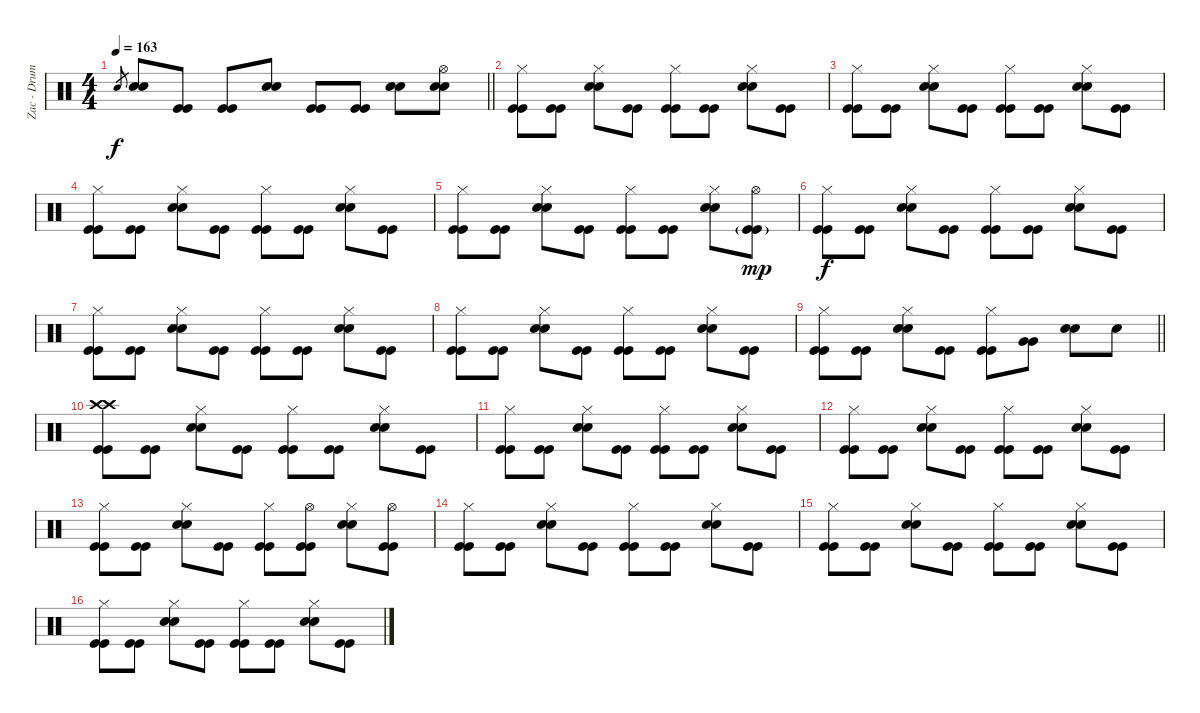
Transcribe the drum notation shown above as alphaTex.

\track ("Zac - Drums" "Zac - Drum") {instrument percussion}
\staff {score}
\articulation defaults
\ts (4 4)
\tempo 163
\clef neutral
\barLineRight lightlight
\ks c "Electric Snare (hit)".8{gr dy f}
("Electric Snare (hit)" "Electric Snare (hit)").8 ("Kick (hit)" "Kick (hit)").8 ("Kick (hit)" "Kick (hit)").8 ("Electric Snare (hit)" "Electric Snare (hit)").8 ("Kick (hit)" "Kick (hit)").8 ("Kick (hit)" "Kick (hit)").8 ("Electric Snare (hit)" "Electric Snare (hit)").8 ("Hi-Hat (open)" "Electric Snare (hit)" "Electric Snare (hit)").8 |
("Hi-Hat (closed)" "Kick (hit)" "Kick (hit)").8 ("Kick (hit)" "Kick (hit)").8 ("Hi-Hat (closed)" "Electric Snare (hit)" "Electric Snare (hit)").8 ("Kick (hit)" "Kick (hit)").8 ("Hi-Hat (closed)" "Kick (hit)" "Kick (hit)").8 ("Kick (hit)" "Kick (hit)").8 ("Hi-Hat (closed)" "Electric Snare (hit)" "Electric Snare (hit)").8 ("Kick (hit)" "Kick (hit)").8 |
("Hi-Hat (closed)" "Kick (hit)" "Kick (hit)").8 ("Kick (hit)" "Kick (hit)").8 ("Hi-Hat (closed)" "Electric Snare (hit)" "Electric Snare (hit)").8 ("Kick (hit)" "Kick (hit)").8 ("Hi-Hat (closed)" "Kick (hit)" "Kick (hit)").8 ("Kick (hit)" "Kick (hit)").8 ("Hi-Hat (closed)" "Electric Snare (hit)" "Electric Snare (hit)").8 ("Kick (hit)" "Kick (hit)").8 |
("Hi-Hat (closed)" "Kick (hit)" "Kick (hit)").8 ("Kick (hit)" "Kick (hit)").8 ("Hi-Hat (closed)" "Electric Snare (hit)" "Electric Snare (hit)").8 ("Kick (hit)" "Kick (hit)").8 ("Hi-Hat (closed)" "Kick (hit)" "Kick (hit)").8 ("Kick (hit)" "Kick (hit)").8 ("Hi-Hat (closed)" "Electric Snare (hit)" "Electric Snare (hit)").8 ("Kick (hit)" "Kick (hit)").8 |
("Hi-Hat (closed)" "Kick (hit)" "Kick (hit)").8 ("Kick (hit)" "Kick (hit)").8 ("Hi-Hat (closed)" "Electric Snare (hit)" "Electric Snare (hit)").8 ("Kick (hit)" "Kick (hit)").8 ("Hi-Hat (closed)" "Kick (hit)" "Kick (hit)").8 ("Kick (hit)" "Kick (hit)").8 ("Hi-Hat (closed)" "Electric Snare (hit)" "Electric Snare (hit)").8 ("Hi-Hat (open)" "Kick (hit)"{g} "Kick (hit)"{g}).8{dy mp} |
("Hi-Hat (closed)" "Kick (hit)" "Kick (hit)").8{dy f} ("Kick (hit)" "Kick (hit)").8 ("Hi-Hat (closed)" "Electric Snare (hit)" "Electric Snare (hit)").8 ("Kick (hit)" "Kick (hit)").8 ("Hi-Hat (closed)" "Kick (hit)" "Kick (hit)").8 ("Kick (hit)" "Kick (hit)").8 ("Hi-Hat (closed)" "Electric Snare (hit)" "Electric Snare (hit)").8 ("Kick (hit)" "Kick (hit)").8 |
("Hi-Hat (closed)" "Kick (hit)" "Kick (hit)").8 ("Kick (hit)" "Kick (hit)").8 ("Hi-Hat (closed)" "Electric Snare (hit)" "Electric Snare (hit)").8 ("Kick (hit)" "Kick (hit)").8 ("Hi-Hat (closed)" "Kick (hit)" "Kick (hit)").8 ("Kick (hit)" "Kick (hit)").8 ("Hi-Hat (closed)" "Electric Snare (hit)" "Electric Snare (hit)").8 ("Kick (hit)" "Kick (hit)").8 |
("Hi-Hat (closed)" "Kick (hit)" "Kick (hit)").8 ("Kick (hit)" "Kick (hit)").8 ("Hi-Hat (closed)" "Electric Snare (hit)" "Electric Snare (hit)").8 ("Kick (hit)" "Kick (hit)").8 ("Hi-Hat (closed)" "Kick (hit)" "Kick (hit)").8 ("Kick (hit)" "Kick (hit)").8 ("Hi-Hat (closed)" "Electric Snare (hit)" "Electric Snare (hit)").8 ("Kick (hit)" "Kick (hit)").8 |
\barLineRight lightlight
("Hi-Hat (closed)" "Kick (hit)" "Kick (hit)").8 ("Kick (hit)" "Kick (hit)").8 ("Hi-Hat (closed)" "Electric Snare (hit)" "Electric Snare (hit)").8 ("Kick (hit)" "Kick (hit)").8 ("Hi-Hat (closed)" "Kick (hit)" "Kick (hit)").8 ("Very Low Tom (hit)" "Very Low Tom (hit)").8 ("Electric Snare (hit)" "Electric Snare (hit)").8 "Snare (hit)".8 |
("Crash high (hit)" "Crash high (hit)" "Kick (hit)" "Kick (hit)").8 ("Kick (hit)" "Kick (hit)").8 ("Hi-Hat (closed)" "Electric Snare (hit)" "Electric Snare (hit)").8 ("Kick (hit)" "Kick (hit)").8 ("Hi-Hat (closed)" "Kick (hit)" "Kick (hit)").8 ("Kick (hit)" "Kick (hit)").8 ("Hi-Hat (closed)" "Electric Snare (hit)" "Electric Snare (hit)").8 ("Kick (hit)" "Kick (hit)").8 |
("Hi-Hat (closed)" "Kick (hit)" "Kick (hit)").8 ("Kick (hit)" "Kick (hit)").8 ("Hi-Hat (closed)" "Electric Snare (hit)" "Electric Snare (hit)").8 ("Kick (hit)" "Kick (hit)").8 ("Hi-Hat (closed)" "Kick (hit)" "Kick (hit)").8 ("Kick (hit)" "Kick (hit)").8 ("Hi-Hat (closed)" "Electric Snare (hit)" "Electric Snare (hit)").8 ("Kick (hit)" "Kick (hit)").8 |
("Hi-Hat (closed)" "Kick (hit)" "Kick (hit)").8 ("Kick (hit)" "Kick (hit)").8 ("Hi-Hat (closed)" "Electric Snare (hit)" "Electric Snare (hit)").8 ("Kick (hit)" "Kick (hit)").8 ("Hi-Hat (closed)" "Kick (hit)" "Kick (hit)").8 ("Kick (hit)" "Kick (hit)").8 ("Hi-Hat (closed)" "Electric Snare (hit)" "Electric Snare (hit)").8 ("Kick (hit)" "Kick (hit)").8 |
("Hi-Hat (closed)" "Kick (hit)" "Kick (hit)").8 ("Kick (hit)" "Kick (hit)").8 ("Hi-Hat (closed)" "Electric Snare (hit)" "Electric Snare (hit)").8 ("Kick (hit)" "Kick (hit)").8 ("Hi-Hat (closed)" "Kick (hit)" "Kick (hit)").8 ("Hi-Hat (open)" "Kick (hit)" "Kick (hit)").8 ("Hi-Hat (closed)" "Electric Snare (hit)" "Electric Snare (hit)").8 ("Hi-Hat (open)" "Kick (hit)" "Kick (hit)").8 |
("Hi-Hat (closed)" "Kick (hit)" "Kick (hit)").8 ("Kick (hit)" "Kick (hit)").8 ("Hi-Hat (closed)" "Electric Snare (hit)" "Electric Snare (hit)").8 ("Kick (hit)" "Kick (hit)").8 ("Hi-Hat (closed)" "Kick (hit)" "Kick (hit)").8 ("Kick (hit)" "Kick (hit)").8 ("Hi-Hat (closed)" "Electric Snare (hit)" "Electric Snare (hit)").8 ("Kick (hit)" "Kick (hit)").8 |
("Hi-Hat (closed)" "Kick (hit)" "Kick (hit)").8 ("Kick (hit)" "Kick (hit)").8 ("Hi-Hat (closed)" "Electric Snare (hit)" "Electric Snare (hit)").8 ("Kick (hit)" "Kick (hit)").8 ("Hi-Hat (closed)" "Kick (hit)" "Kick (hit)").8 ("Kick (hit)" "Kick (hit)").8 ("Hi-Hat (closed)" "Electric Snare (hit)" "Electric Snare (hit)").8 ("Kick (hit)" "Kick (hit)").8 |
("Hi-Hat (closed)" "Kick (hit)" "Kick (hit)").8 ("Kick (hit)" "Kick (hit)").8 ("Hi-Hat (closed)" "Electric Snare (hit)" "Electric Snare (hit)").8 ("Kick (hit)" "Kick (hit)").8 ("Hi-Hat (closed)" "Kick (hit)" "Kick (hit)").8 ("Kick (hit)" "Kick (hit)").8 ("Hi-Hat (closed)" "Electric Snare (hit)" "Electric Snare (hit)").8 ("Kick (hit)" "Kick (hit)").8
